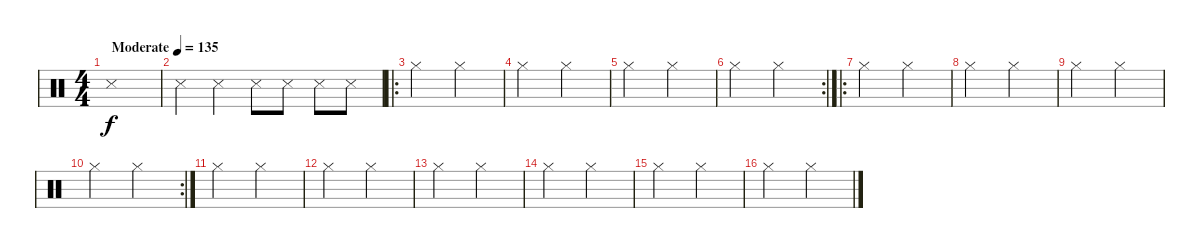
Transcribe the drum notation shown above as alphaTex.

\track (" " " ") {instrument percussion}
\staff {score}
\articulation defaults
\ts (4 4)
\tempo (135 "Moderate")
\clef neutral
\ks c "Snare (side stick) 3".1{dy f}
|
"Snare (side stick) 3".4 "Snare (side stick) 3".4 "Snare (side stick) 3".8 "Snare (side stick) 3".8 "Snare (side stick) 3".8 "Snare (side stick) 3".8 |
\ro "Hi-Hat (closed)".2 "Hi-Hat (closed)".2
|
"Hi-Hat (closed)".2 "Hi-Hat (closed)".2 |
"Hi-Hat (closed)".2 "Hi-Hat (closed)".2 |
\rc 2 "Hi-Hat (closed)".2 "Hi-Hat (closed)".2
|
\ro "Hi-Hat (closed)".2 "Hi-Hat (closed)".2
|
"Hi-Hat (closed)".2 "Hi-Hat (closed)".2 |
"Hi-Hat (closed)".2 "Hi-Hat (closed)".2 |
\rc 2 "Hi-Hat (closed)".2 "Hi-Hat (closed)".2
|
"Hi-Hat (closed)".2 "Hi-Hat (closed)".2 |
"Hi-Hat (closed)".2 "Hi-Hat (closed)".2 |
"Hi-Hat (closed)".2 "Hi-Hat (closed)".2 |
"Hi-Hat (closed)".2 "Hi-Hat (closed)".2 |
"Hi-Hat (closed)".2 "Hi-Hat (closed)".2 |
"Hi-Hat (closed)".2 "Hi-Hat (closed)".2
